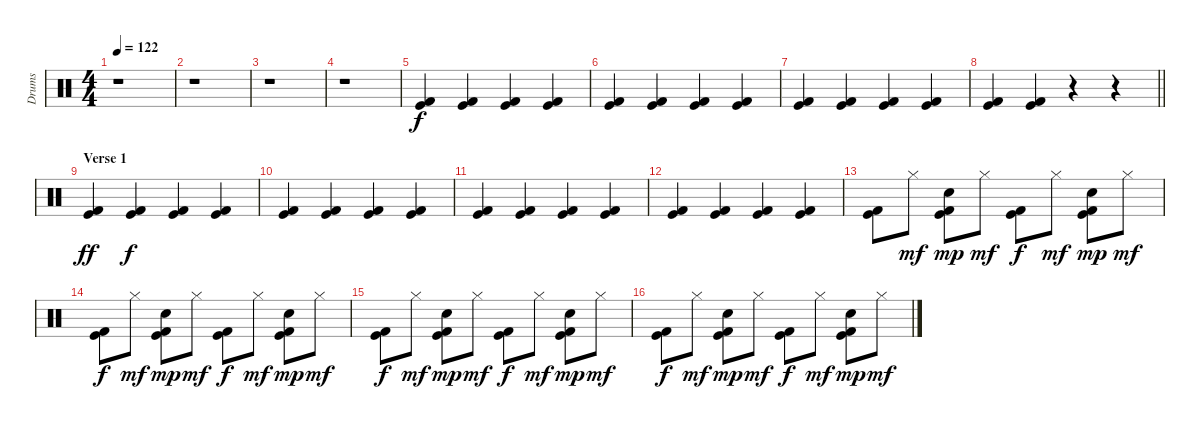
\track ("Drums" "Drums") {instrument percussion}
\staff {score}
\articulation defaults
\ts (4 4)
\tempo 122
\clef neutral
\ks c
r.1{dy f} |
r.1 |
r.1 |
r.1 |
("Kick (hit)" "Kick (hit) 2").4 ("Kick (hit)" "Kick (hit) 2").4 ("Kick (hit)" "Kick (hit) 2").4 ("Kick (hit)" "Kick (hit) 2").4 |
("Kick (hit)" "Kick (hit) 2").4 ("Kick (hit)" "Kick (hit) 2").4 ("Kick (hit)" "Kick (hit) 2").4 ("Kick (hit)" "Kick (hit) 2").4 |
("Kick (hit)" "Kick (hit) 2").4 ("Kick (hit)" "Kick (hit) 2").4 ("Kick (hit)" "Kick (hit) 2").4 ("Kick (hit)" "Kick (hit) 2").4 |
\barLineRight lightlight
("Kick (hit)" "Kick (hit) 2").4 ("Kick (hit)" "Kick (hit) 2").4 r.4 r.4 |
\section ("" "Verse 1")
("Kick (hit)" "Kick (hit) 2").4{dy ff} ("Kick (hit)" "Kick (hit) 2").4{dy f} ("Kick (hit)" "Kick (hit) 2").4 ("Kick (hit)" "Kick (hit) 2").4 |
("Kick (hit)" "Kick (hit) 2").4 ("Kick (hit)" "Kick (hit) 2").4 ("Kick (hit)" "Kick (hit) 2").4 ("Kick (hit)" "Kick (hit) 2").4 |
("Kick (hit)" "Kick (hit) 2").4 ("Kick (hit)" "Kick (hit) 2").4 ("Kick (hit)" "Kick (hit) 2").4 ("Kick (hit)" "Kick (hit) 2").4 |
("Kick (hit)" "Kick (hit) 2").4 ("Kick (hit)" "Kick (hit) 2").4 ("Kick (hit)" "Kick (hit) 2").4 ("Kick (hit)" "Kick (hit) 2").4 |
("Kick (hit)" "Kick (hit) 2").8 "Hi-Hat (closed)".8{dy mf} ("Electric Snare (hit)" "Kick (hit)" "Kick (hit) 2").8{dy mp} "Hi-Hat (closed)".8{dy mf} ("Kick (hit)" "Kick (hit) 2").8{dy f} "Hi-Hat (closed)".8{dy mf} ("Electric Snare (hit)" "Kick (hit)" "Kick (hit) 2").8{dy mp} "Hi-Hat (closed)".8{dy mf} |
("Kick (hit)" "Kick (hit) 2").8{dy f} "Hi-Hat (closed)".8{dy mf} ("Electric Snare (hit)" "Kick (hit)" "Kick (hit) 2").8{dy mp} "Hi-Hat (closed)".8{dy mf} ("Kick (hit)" "Kick (hit) 2").8{dy f} "Hi-Hat (closed)".8{dy mf} ("Electric Snare (hit)" "Kick (hit)" "Kick (hit) 2").8{dy mp} "Hi-Hat (closed)".8{dy mf} |
("Kick (hit)" "Kick (hit) 2").8{dy f} "Hi-Hat (closed)".8{dy mf} ("Electric Snare (hit)" "Kick (hit)" "Kick (hit) 2").8{dy mp} "Hi-Hat (closed)".8{dy mf} ("Kick (hit)" "Kick (hit) 2").8{dy f} "Hi-Hat (closed)".8{dy mf} ("Electric Snare (hit)" "Kick (hit)" "Kick (hit) 2").8{dy mp} "Hi-Hat (closed)".8{dy mf} |
("Kick (hit)" "Kick (hit) 2").8{dy f} "Hi-Hat (closed)".8{dy mf} ("Electric Snare (hit)" "Kick (hit)" "Kick (hit) 2").8{dy mp} "Hi-Hat (closed)".8{dy mf} ("Kick (hit)" "Kick (hit) 2").8{dy f} "Hi-Hat (closed)".8{dy mf} ("Electric Snare (hit)" "Kick (hit)" "Kick (hit) 2").8{dy mp} "Hi-Hat (closed)".8{dy mf}
